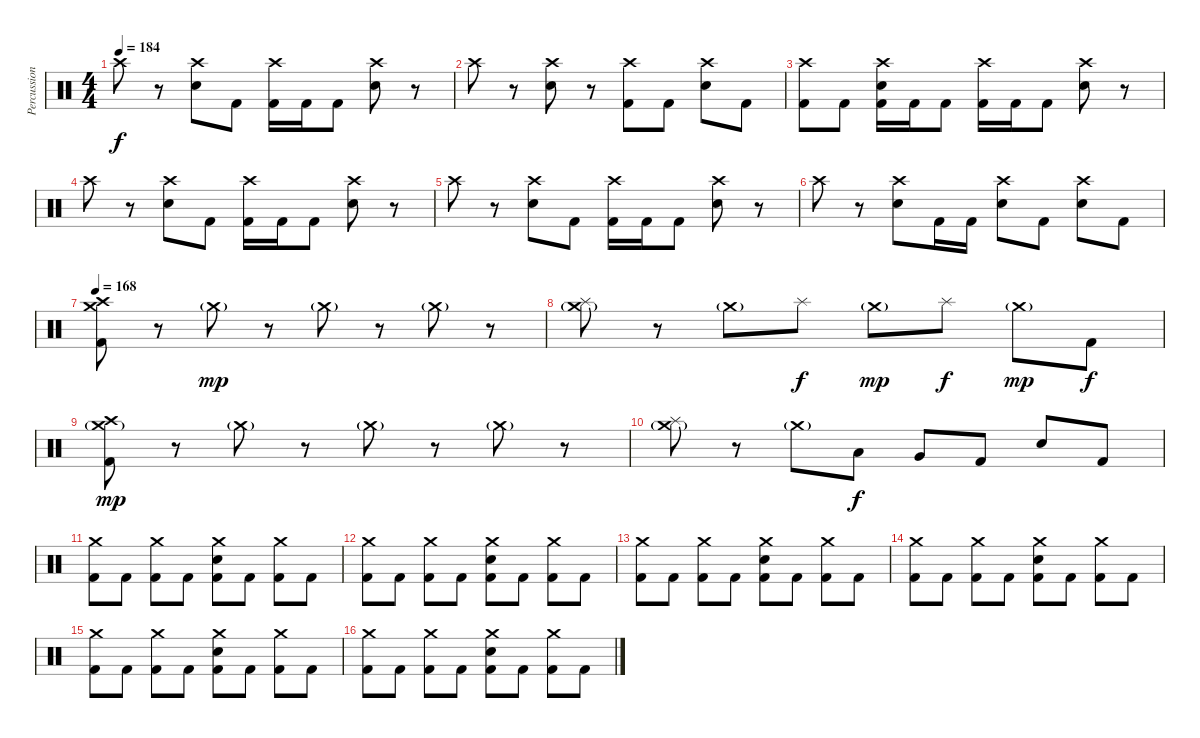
\track ("Percussion" "Percussion") {instrument percussion}
\staff {score}
\articulation defaults
\ts (4 4)
\tempo 184
\clef neutral
\ks c "Crash high (hit)".8{dy f}
r.8 ("Crash high (hit)" "Snare (hit) 2").8 "Kick (hit) 2".8 ("Crash high (hit)" "Kick (hit) 2").16 "Kick (hit) 2".16 "Kick (hit) 2".8 ("Crash high (hit)" "Snare (hit) 2").8 r.8 |
"Crash high (hit)".8 r.8 ("Crash high (hit)" "Snare (hit) 2").8 r.8 ("Crash high (hit)" "Kick (hit) 2").8 "Kick (hit) 2".8 ("Crash high (hit)" "Snare (hit) 2").8 "Kick (hit) 2".8 |
("Crash high (hit)" "Kick (hit) 2").8 "Kick (hit) 2".8 ("Crash high (hit)" "Snare (hit) 2" "Kick (hit) 2").16 "Kick (hit) 2".16 "Kick (hit) 2".8 ("Crash high (hit)" "Kick (hit) 2").16 "Kick (hit) 2".16 "Kick (hit) 2".8 ("Crash high (hit)" "Snare (hit) 2").8 r.8 |
"Crash high (hit)".8 r.8 ("Crash high (hit)" "Snare (hit) 2").8 "Kick (hit) 2".8 ("Crash high (hit)" "Kick (hit) 2").16 "Kick (hit) 2".16 "Kick (hit) 2".8 ("Crash high (hit)" "Snare (hit) 2").8 r.8 |
"Crash high (hit)".8 r.8 ("Crash high (hit)" "Snare (hit) 2").8 "Kick (hit) 2".8 ("Crash high (hit)" "Kick (hit) 2").16 "Kick (hit) 2".16 "Kick (hit) 2".8 ("Crash high (hit)" "Snare (hit) 2").8 r.8 |
"Crash high (hit)".8 r.8 ("Crash high (hit)" "Snare (hit) 2").8 "Kick (hit) 2".16 "Kick (hit) 2".16 ("Crash high (hit)" "Snare (hit) 2").8 "Kick (hit) 2".8 ("Crash high (hit)" "Snare (hit) 2").8 "Kick (hit) 2".8 |
\tempo 168
("Crash high (hit)" "Crash medium (hit)" "Kick (hit) 2").8 r.8 "Crash medium (hit)"{g}.8{dy mp} r.8 "Crash medium (hit)"{g}.8 r.8 "Crash medium (hit)"{g}.8 r.8 |
("Crash medium (hit)"{g} "Splash (hit)").8 r.8 "Crash medium (hit)"{g}.8 "Splash (hit)".8{dy f} "Crash medium (hit)"{g}.8{dy mp} "Splash (hit)".8{dy f} "Crash medium (hit)"{g}.8{dy mp} "Kick (hit) 2".8{dy f} |
("Crash high (hit)" "Crash medium (hit)"{g} "Kick (hit) 2").8{dy mp} r.8 "Crash medium (hit)"{g}.8 r.8 "Crash medium (hit)"{g}.8 r.8 "Crash medium (hit)"{g}.8 r.8 |
("Crash medium (hit)"{g} "Splash (hit)").8 r.8 "Crash medium (hit)"{g}.8 "Low Tom (hit)".8{dy f} "Very Low Tom (hit)".8 "Kick (hit) 2".8 "Snare (hit) 2".8 "Kick (hit) 2".8 |
("Crash medium (hit)" "Kick (hit) 2").8 "Kick (hit) 2".8 ("Crash medium (hit)" "Kick (hit) 2").8 "Kick (hit) 2".8 ("Crash medium (hit)" "Snare (hit) 2" "Kick (hit) 2").8 "Kick (hit) 2".8 ("Crash medium (hit)" "Kick (hit) 2").8 "Kick (hit) 2".8 |
("Crash medium (hit)" "Kick (hit) 2").8 "Kick (hit) 2".8 ("Crash medium (hit)" "Kick (hit) 2").8 "Kick (hit) 2".8 ("Crash medium (hit)" "Snare (hit) 2" "Kick (hit) 2").8 "Kick (hit) 2".8 ("Crash medium (hit)" "Kick (hit) 2").8 "Kick (hit) 2".8 |
("Crash medium (hit)" "Kick (hit) 2").8 "Kick (hit) 2".8 ("Crash medium (hit)" "Kick (hit) 2").8 "Kick (hit) 2".8 ("Crash medium (hit)" "Snare (hit) 2" "Kick (hit) 2").8 "Kick (hit) 2".8 ("Crash medium (hit)" "Kick (hit) 2").8 "Kick (hit) 2".8 |
("Crash medium (hit)" "Kick (hit) 2").8 "Kick (hit) 2".8 ("Crash medium (hit)" "Kick (hit) 2").8 "Kick (hit) 2".8 ("Crash medium (hit)" "Snare (hit) 2" "Kick (hit) 2").8 "Kick (hit) 2".8 ("Crash medium (hit)" "Kick (hit) 2").8 "Kick (hit) 2".8 |
("Crash medium (hit)" "Kick (hit) 2").8 "Kick (hit) 2".8 ("Crash medium (hit)" "Kick (hit) 2").8 "Kick (hit) 2".8 ("Crash medium (hit)" "Snare (hit) 2" "Kick (hit) 2").8 "Kick (hit) 2".8 ("Crash medium (hit)" "Kick (hit) 2").8 "Kick (hit) 2".8 |
("Crash medium (hit)" "Kick (hit) 2").8 "Kick (hit) 2".8 ("Crash medium (hit)" "Kick (hit) 2").8 "Kick (hit) 2".8 ("Crash medium (hit)" "Snare (hit) 2" "Kick (hit) 2").8 "Kick (hit) 2".8 ("Crash medium (hit)" "Kick (hit) 2").8 "Kick (hit) 2".8
